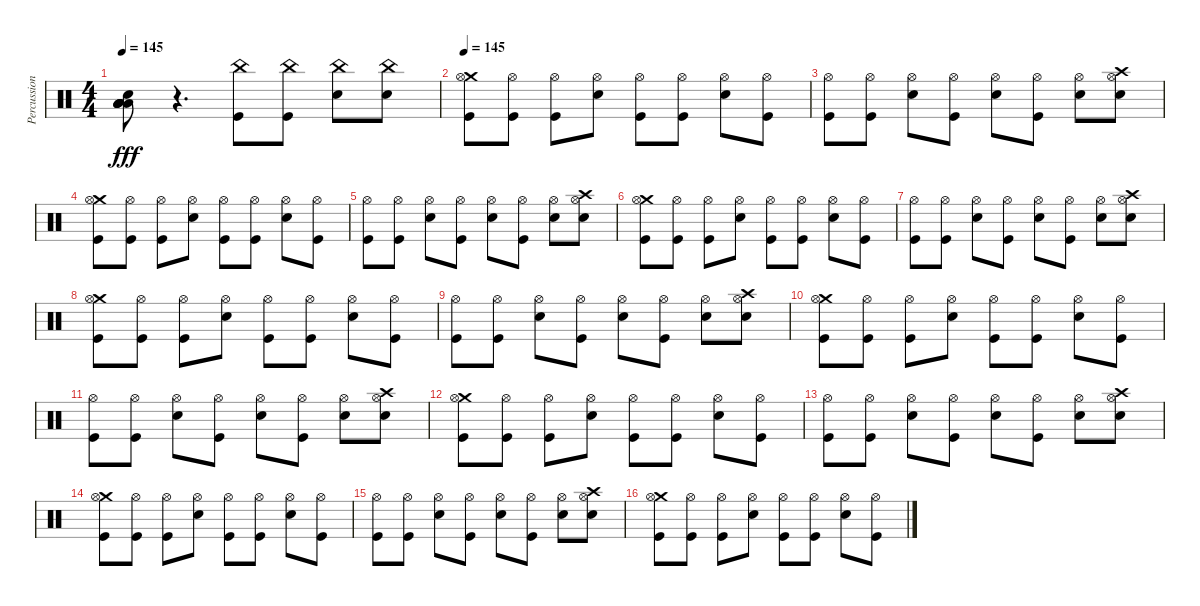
\track ("Percussion" "Percussion") {instrument percussion}
\staff {score}
\articulation defaults
\ts (4 4)
\tempo 145
\clef neutral
\ks c
("Snare (hit) 2" "Low Floor Tom (hit)" "Low Floor Tom (hit)" "Low Floor Tom (hit)" "Low Floor Tom (hit)" "Low Floor Tom (hit)").8{dy fff} r.4{d} ("Kick (hit)" "China (hit)").8 ("Kick (hit)" "China (hit)").8 ("Snare (hit) 2" "China (hit)").8 ("Snare (hit) 2" "China (hit)").8 |
\tempo 145
("Crash medium (hit)" "Kick (hit)" "Hi-Hat (open)").8 ("Kick (hit)" "Hi-Hat (open)").8 ("Kick (hit)" "Hi-Hat (open)").8 ("Snare (hit) 2" "Hi-Hat (open)").8 ("Kick (hit)" "Hi-Hat (open)").8 ("Kick (hit)" "Hi-Hat (open)").8 ("Snare (hit) 2" "Hi-Hat (open)").8 ("Kick (hit)" "Hi-Hat (open)").8 |
("Kick (hit)" "Hi-Hat (open)").8 ("Kick (hit)" "Hi-Hat (open)").8 ("Snare (hit) 2" "Hi-Hat (open)").8 ("Kick (hit)" "Hi-Hat (open)").8 ("Snare (hit) 2" "Hi-Hat (open)").8 ("Kick (hit)" "Hi-Hat (open)").8 ("Snare (hit) 2" "Hi-Hat (open)").8 ("Crash high (hit)" "Snare (hit) 2" "Hi-Hat (open)").8 |
("Crash medium (hit)" "Kick (hit)" "Hi-Hat (open)").8 ("Kick (hit)" "Hi-Hat (open)").8 ("Kick (hit)" "Hi-Hat (open)").8 ("Snare (hit) 2" "Hi-Hat (open)").8 ("Kick (hit)" "Hi-Hat (open)").8 ("Kick (hit)" "Hi-Hat (open)").8 ("Snare (hit) 2" "Hi-Hat (open)").8 ("Kick (hit)" "Hi-Hat (open)").8 |
("Kick (hit)" "Hi-Hat (open)").8 ("Kick (hit)" "Hi-Hat (open)").8 ("Snare (hit) 2" "Hi-Hat (open)").8 ("Kick (hit)" "Hi-Hat (open)").8 ("Snare (hit) 2" "Hi-Hat (open)").8 ("Kick (hit)" "Hi-Hat (open)").8 ("Snare (hit) 2" "Hi-Hat (open)").8 ("Crash high (hit)" "Snare (hit) 2" "Hi-Hat (open)").8 |
("Crash medium (hit)" "Kick (hit)" "Hi-Hat (open)").8 ("Kick (hit)" "Hi-Hat (open)").8 ("Kick (hit)" "Hi-Hat (open)").8 ("Snare (hit) 2" "Hi-Hat (open)").8 ("Kick (hit)" "Hi-Hat (open)").8 ("Kick (hit)" "Hi-Hat (open)").8 ("Snare (hit) 2" "Hi-Hat (open)").8 ("Kick (hit)" "Hi-Hat (open)").8 |
("Kick (hit)" "Hi-Hat (open)").8 ("Kick (hit)" "Hi-Hat (open)").8 ("Snare (hit) 2" "Hi-Hat (open)").8 ("Kick (hit)" "Hi-Hat (open)").8 ("Snare (hit) 2" "Hi-Hat (open)").8 ("Kick (hit)" "Hi-Hat (open)").8 ("Snare (hit) 2" "Hi-Hat (open)").8 ("Crash high (hit)" "Snare (hit) 2" "Hi-Hat (open)").8 |
("Crash medium (hit)" "Kick (hit)" "Hi-Hat (open)").8 ("Kick (hit)" "Hi-Hat (open)").8 ("Kick (hit)" "Hi-Hat (open)").8 ("Snare (hit) 2" "Hi-Hat (open)").8 ("Kick (hit)" "Hi-Hat (open)").8 ("Kick (hit)" "Hi-Hat (open)").8 ("Snare (hit) 2" "Hi-Hat (open)").8 ("Kick (hit)" "Hi-Hat (open)").8 |
("Kick (hit)" "Hi-Hat (open)").8 ("Kick (hit)" "Hi-Hat (open)").8 ("Snare (hit) 2" "Hi-Hat (open)").8 ("Kick (hit)" "Hi-Hat (open)").8 ("Snare (hit) 2" "Hi-Hat (open)").8 ("Kick (hit)" "Hi-Hat (open)").8 ("Snare (hit) 2" "Hi-Hat (open)").8 ("Crash high (hit)" "Snare (hit) 2" "Hi-Hat (open)").8 |
("Crash medium (hit)" "Kick (hit)" "Hi-Hat (open)").8 ("Kick (hit)" "Hi-Hat (open)").8 ("Kick (hit)" "Hi-Hat (open)").8 ("Snare (hit) 2" "Hi-Hat (open)").8 ("Kick (hit)" "Hi-Hat (open)").8 ("Kick (hit)" "Hi-Hat (open)").8 ("Snare (hit) 2" "Hi-Hat (open)").8 ("Kick (hit)" "Hi-Hat (open)").8 |
("Kick (hit)" "Hi-Hat (open)").8 ("Kick (hit)" "Hi-Hat (open)").8 ("Snare (hit) 2" "Hi-Hat (open)").8 ("Kick (hit)" "Hi-Hat (open)").8 ("Snare (hit) 2" "Hi-Hat (open)").8 ("Kick (hit)" "Hi-Hat (open)").8 ("Snare (hit) 2" "Hi-Hat (open)").8 ("Crash high (hit)" "Snare (hit) 2" "Hi-Hat (open)").8 |
("Crash medium (hit)" "Kick (hit)" "Hi-Hat (open)").8 ("Kick (hit)" "Hi-Hat (open)").8 ("Kick (hit)" "Hi-Hat (open)").8 ("Snare (hit) 2" "Hi-Hat (open)").8 ("Kick (hit)" "Hi-Hat (open)").8 ("Kick (hit)" "Hi-Hat (open)").8 ("Snare (hit) 2" "Hi-Hat (open)").8 ("Kick (hit)" "Hi-Hat (open)").8 |
("Kick (hit)" "Hi-Hat (open)").8 ("Kick (hit)" "Hi-Hat (open)").8 ("Snare (hit) 2" "Hi-Hat (open)").8 ("Kick (hit)" "Hi-Hat (open)").8 ("Snare (hit) 2" "Hi-Hat (open)").8 ("Kick (hit)" "Hi-Hat (open)").8 ("Snare (hit) 2" "Hi-Hat (open)").8 ("Crash high (hit)" "Snare (hit) 2" "Hi-Hat (open)").8 |
("Crash medium (hit)" "Kick (hit)" "Hi-Hat (open)").8 ("Kick (hit)" "Hi-Hat (open)").8 ("Kick (hit)" "Hi-Hat (open)").8 ("Snare (hit) 2" "Hi-Hat (open)").8 ("Kick (hit)" "Hi-Hat (open)").8 ("Kick (hit)" "Hi-Hat (open)").8 ("Snare (hit) 2" "Hi-Hat (open)").8 ("Kick (hit)" "Hi-Hat (open)").8 |
("Kick (hit)" "Hi-Hat (open)").8 ("Kick (hit)" "Hi-Hat (open)").8 ("Snare (hit) 2" "Hi-Hat (open)").8 ("Kick (hit)" "Hi-Hat (open)").8 ("Snare (hit) 2" "Hi-Hat (open)").8 ("Kick (hit)" "Hi-Hat (open)").8 ("Snare (hit) 2" "Hi-Hat (open)").8 ("Crash high (hit)" "Snare (hit) 2" "Hi-Hat (open)").8 |
("Crash medium (hit)" "Kick (hit)" "Hi-Hat (open)").8 ("Kick (hit)" "Hi-Hat (open)").8 ("Kick (hit)" "Hi-Hat (open)").8 ("Snare (hit) 2" "Hi-Hat (open)").8 ("Kick (hit)" "Hi-Hat (open)").8 ("Kick (hit)" "Hi-Hat (open)").8 ("Snare (hit) 2" "Hi-Hat (open)").8 ("Kick (hit)" "Hi-Hat (open)").8
